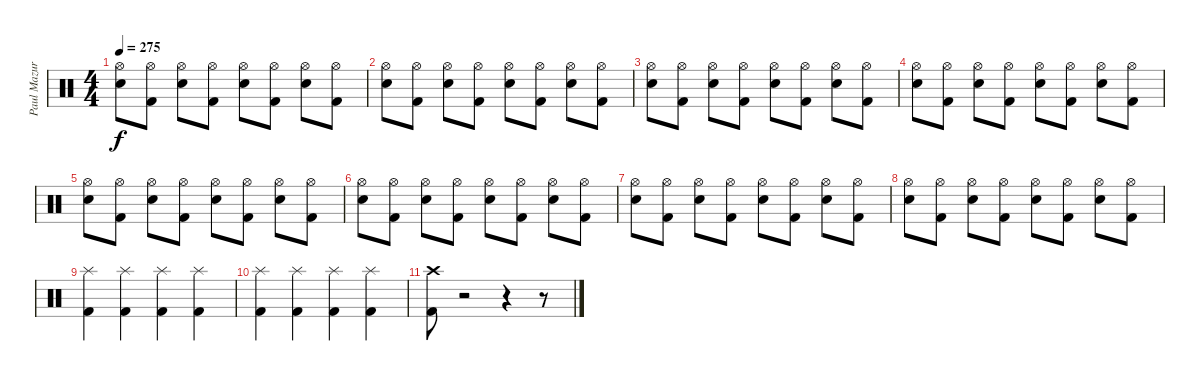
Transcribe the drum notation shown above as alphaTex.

\track ("Paul Mazurkiewicz" "Paul Mazur") {instrument percussion}
\staff {score}
\articulation defaults
\ts (4 4)
\tempo 275
\clef neutral
\ks c
("Hi-Hat (open)" "Snare (hit) 2").8{dy f} ("Hi-Hat (open)" "Kick (hit) 2").8 ("Hi-Hat (open)" "Snare (hit) 2").8 ("Hi-Hat (open)" "Kick (hit) 2").8 ("Hi-Hat (open)" "Snare (hit) 2").8 ("Hi-Hat (open)" "Kick (hit) 2").8 ("Hi-Hat (open)" "Snare (hit) 2").8 ("Hi-Hat (open)" "Kick (hit) 2").8 |
("Hi-Hat (open)" "Snare (hit) 2").8 ("Hi-Hat (open)" "Kick (hit) 2").8 ("Hi-Hat (open)" "Snare (hit) 2").8 ("Hi-Hat (open)" "Kick (hit) 2").8 ("Hi-Hat (open)" "Snare (hit) 2").8 ("Hi-Hat (open)" "Kick (hit) 2").8 ("Hi-Hat (open)" "Snare (hit) 2").8 ("Hi-Hat (open)" "Kick (hit) 2").8 |
("Hi-Hat (open)" "Snare (hit) 2").8 ("Hi-Hat (open)" "Kick (hit) 2").8 ("Hi-Hat (open)" "Snare (hit) 2").8 ("Hi-Hat (open)" "Kick (hit) 2").8 ("Hi-Hat (open)" "Snare (hit) 2").8 ("Hi-Hat (open)" "Kick (hit) 2").8 ("Hi-Hat (open)" "Snare (hit) 2").8 ("Hi-Hat (open)" "Kick (hit) 2").8 |
("Hi-Hat (open)" "Snare (hit) 2").8 ("Hi-Hat (open)" "Kick (hit) 2").8 ("Hi-Hat (open)" "Snare (hit) 2").8 ("Hi-Hat (open)" "Kick (hit) 2").8 ("Hi-Hat (open)" "Snare (hit) 2").8 ("Hi-Hat (open)" "Kick (hit) 2").8 ("Hi-Hat (open)" "Snare (hit) 2").8 ("Hi-Hat (open)" "Kick (hit) 2").8 |
("Hi-Hat (open)" "Snare (hit) 2").8 ("Hi-Hat (open)" "Kick (hit) 2").8 ("Hi-Hat (open)" "Snare (hit) 2").8 ("Hi-Hat (open)" "Kick (hit) 2").8 ("Hi-Hat (open)" "Snare (hit) 2").8 ("Hi-Hat (open)" "Kick (hit) 2").8 ("Hi-Hat (open)" "Snare (hit) 2").8 ("Hi-Hat (open)" "Kick (hit) 2").8 |
("Hi-Hat (open)" "Snare (hit) 2").8 ("Hi-Hat (open)" "Kick (hit) 2").8 ("Hi-Hat (open)" "Snare (hit) 2").8 ("Hi-Hat (open)" "Kick (hit) 2").8 ("Hi-Hat (open)" "Snare (hit) 2").8 ("Hi-Hat (open)" "Kick (hit) 2").8 ("Hi-Hat (open)" "Snare (hit) 2").8 ("Hi-Hat (open)" "Kick (hit) 2").8 |
("Hi-Hat (open)" "Snare (hit) 2").8 ("Hi-Hat (open)" "Kick (hit) 2").8 ("Hi-Hat (open)" "Snare (hit) 2").8 ("Hi-Hat (open)" "Kick (hit) 2").8 ("Hi-Hat (open)" "Snare (hit) 2").8 ("Hi-Hat (open)" "Kick (hit) 2").8 ("Hi-Hat (open)" "Snare (hit) 2").8 ("Hi-Hat (open)" "Kick (hit) 2").8 |
("Hi-Hat (open)" "Snare (hit) 2").8 ("Hi-Hat (open)" "Kick (hit) 2").8 ("Hi-Hat (open)" "Snare (hit) 2").8 ("Hi-Hat (open)" "Kick (hit) 2").8 ("Hi-Hat (open)" "Snare (hit) 2").8 ("Hi-Hat (open)" "Kick (hit) 2").8 ("Hi-Hat (open)" "Snare (hit) 2").8 ("Hi-Hat (open)" "Kick (hit) 2").8 |
("Splash (hit)" "Kick (hit) 2").4 ("Splash (hit)" "Kick (hit) 2").4 ("Splash (hit)" "Kick (hit) 2").4 ("Splash (hit)" "Kick (hit) 2").4 |
("Splash (hit)" "Kick (hit) 2").4 ("Splash (hit)" "Kick (hit) 2").4 ("Splash (hit)" "Kick (hit) 2").4 ("Splash (hit)" "Kick (hit) 2").4 |
("Crash high (hit)" "Kick (hit) 2").8 r.2 r.4 r.8
